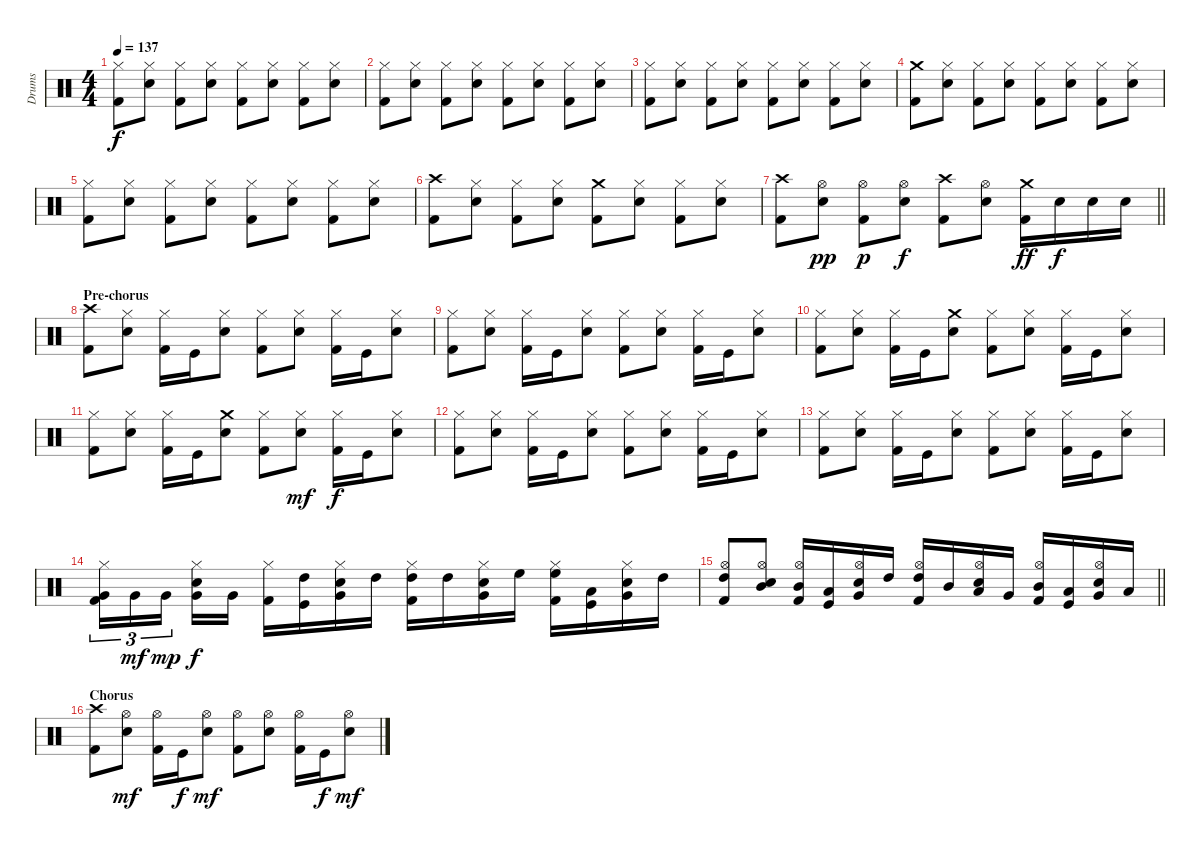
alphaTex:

\track ("Drums" "Drums") {instrument percussion}
\staff {score}
\articulation defaults
\ts (4 4)
\tempo 137
\clef neutral
\ks c
("Hi-Hat (closed)" "Kick (hit) 2").8{dy f} ("Hi-Hat (closed)" "Snare (hit) 2").8 ("Hi-Hat (closed)" "Kick (hit) 2").8 ("Hi-Hat (closed)" "Snare (hit) 2").8 ("Hi-Hat (closed)" "Kick (hit) 2").8 ("Hi-Hat (closed)" "Snare (hit) 2").8 ("Hi-Hat (closed)" "Kick (hit) 2").8 ("Hi-Hat (closed)" "Snare (hit) 2").8 |
("Hi-Hat (closed)" "Kick (hit) 2").8 ("Hi-Hat (closed)" "Snare (hit) 2").8 ("Hi-Hat (closed)" "Kick (hit) 2").8 ("Hi-Hat (closed)" "Snare (hit) 2").8 ("Hi-Hat (closed)" "Kick (hit) 2").8 ("Hi-Hat (closed)" "Snare (hit) 2").8 ("Hi-Hat (closed)" "Kick (hit) 2").8 ("Hi-Hat (closed)" "Snare (hit) 2").8 |
("Hi-Hat (closed)" "Kick (hit) 2").8 ("Hi-Hat (closed)" "Snare (hit) 2").8 ("Hi-Hat (closed)" "Kick (hit) 2").8 ("Hi-Hat (closed)" "Snare (hit) 2").8 ("Hi-Hat (closed)" "Kick (hit) 2").8 ("Hi-Hat (closed)" "Snare (hit) 2").8 ("Hi-Hat (closed)" "Kick (hit) 2").8 ("Hi-Hat (closed)" "Snare (hit) 2").8 |
("Crash medium (hit)" "Kick (hit) 2").8 ("Hi-Hat (closed)" "Snare (hit) 2").8 ("Hi-Hat (closed)" "Kick (hit) 2").8 ("Hi-Hat (closed)" "Snare (hit) 2").8 ("Hi-Hat (closed)" "Kick (hit) 2").8 ("Hi-Hat (closed)" "Snare (hit) 2").8 ("Hi-Hat (closed)" "Kick (hit) 2").8 ("Hi-Hat (closed)" "Snare (hit) 2").8 |
("Hi-Hat (closed)" "Kick (hit) 2").8 ("Hi-Hat (closed)" "Snare (hit) 2").8 ("Hi-Hat (closed)" "Kick (hit) 2").8 ("Hi-Hat (closed)" "Snare (hit) 2").8 ("Hi-Hat (closed)" "Kick (hit) 2").8 ("Hi-Hat (closed)" "Snare (hit) 2").8 ("Hi-Hat (closed)" "Kick (hit) 2").8 ("Hi-Hat (closed)" "Snare (hit) 2").8 |
("Crash high (hit)" "Kick (hit) 2").8 ("Hi-Hat (closed)" "Snare (hit) 2").8 ("Hi-Hat (closed)" "Kick (hit) 2").8 ("Hi-Hat (closed)" "Snare (hit) 2").8 ("Crash medium (hit)" "Kick (hit) 2").8 ("Hi-Hat (closed)" "Snare (hit) 2").8 ("Hi-Hat (closed)" "Kick (hit) 2").8 ("Hi-Hat (closed)" "Snare (hit) 2").8 |
\barLineRight lightlight
("Crash high (hit)" "Kick (hit) 2").8 ("Hi-Hat (open)" "Snare (hit) 2").8{dy pp} ("Hi-Hat (open)" "Kick (hit) 2").8{dy p} ("Hi-Hat (open)" "Snare (hit) 2").8{dy f} ("Crash high (hit)" "Kick (hit) 2").8 ("Hi-Hat (open)" "Snare (hit) 2").8 ("Crash medium (hit)" "Kick (hit) 2").16{dy ff} "Snare (hit) 2".16{dy f} "Snare (hit) 2".16 "Snare (hit) 2".16 |
\section ("" "Pre-chorus")
("Crash high (hit)" "Kick (hit) 2").8 ("Hi-Hat (closed)" "Snare (hit) 2").8 ("Hi-Hat (closed)" "Kick (hit) 2").16 "Kick (hit)".16 ("Hi-Hat (closed)" "Snare (hit) 2").8 ("Hi-Hat (closed)" "Kick (hit) 2").8 ("Hi-Hat (closed)" "Snare (hit) 2").8 ("Hi-Hat (closed)" "Kick (hit) 2").16 "Kick (hit)".16 ("Hi-Hat (closed)" "Snare (hit) 2").8 |
("Hi-Hat (closed)" "Kick (hit) 2").8 ("Hi-Hat (closed)" "Snare (hit) 2").8 ("Hi-Hat (closed)" "Kick (hit) 2").16 "Kick (hit)".16 ("Hi-Hat (closed)" "Snare (hit) 2").8 ("Hi-Hat (closed)" "Kick (hit) 2").8 ("Hi-Hat (closed)" "Snare (hit) 2").8 ("Hi-Hat (closed)" "Kick (hit) 2").16 "Kick (hit)".16 ("Hi-Hat (closed)" "Snare (hit) 2").8 |
("Hi-Hat (closed)" "Kick (hit) 2").8 ("Hi-Hat (closed)" "Snare (hit) 2").8 ("Hi-Hat (closed)" "Kick (hit) 2").16 "Kick (hit)".16 ("Crash medium (hit)" "Snare (hit) 2").8 ("Hi-Hat (closed)" "Kick (hit) 2").8 ("Hi-Hat (closed)" "Snare (hit) 2").8 ("Hi-Hat (closed)" "Kick (hit) 2").16 "Kick (hit)".16 ("Hi-Hat (closed)" "Snare (hit) 2").8 |
("Hi-Hat (closed)" "Kick (hit) 2").8 ("Hi-Hat (closed)" "Snare (hit) 2").8 ("Hi-Hat (closed)" "Kick (hit) 2").16 "Kick (hit)".16 ("Crash medium (hit)" "Snare (hit) 2").8 ("Hi-Hat (closed)" "Kick (hit) 2").8 ("Hi-Hat (closed)" "Snare (hit) 2").8{dy mf} ("Hi-Hat (closed)" "Kick (hit) 2").16{dy f} "Kick (hit)".16 ("Hi-Hat (closed)" "Snare (hit) 2").8 |
("Hi-Hat (closed)" "Kick (hit) 2").8 ("Hi-Hat (closed)" "Snare (hit) 2").8 ("Hi-Hat (closed)" "Kick (hit) 2").16 "Kick (hit)".16 ("Hi-Hat (closed)" "Snare (hit) 2").8 ("Hi-Hat (closed)" "Kick (hit) 2").8 ("Hi-Hat (closed)" "Snare (hit) 2").8 ("Hi-Hat (closed)" "Kick (hit) 2").16 "Kick (hit)".16 ("Hi-Hat (closed)" "Snare (hit) 2").8 |
("Hi-Hat (closed)" "Kick (hit) 2").8 ("Hi-Hat (closed)" "Snare (hit) 2").8 ("Hi-Hat (closed)" "Kick (hit) 2").16 "Kick (hit)".16 ("Hi-Hat (closed)" "Snare (hit) 2").8 ("Hi-Hat (closed)" "Kick (hit) 2").8 ("Hi-Hat (closed)" "Snare (hit) 2").8 ("Hi-Hat (closed)" "Kick (hit) 2").16 "Kick (hit)".16 ("Hi-Hat (closed)" "Snare (hit) 2").8 |
("Hi-Hat (closed)" "Very Low Tom (hit)" "Kick (hit) 2").16{tu (3 2)} "Very Low Tom (hit)".16{tu (3 2) dy mf} "Very Low Tom (hit)".16{tu (3 2) dy mp beam splitsecondary} ("Hi-Hat (closed)" "Very Low Tom (hit)" "Snare (hit) 2").16{dy f} "Very Low Tom (hit)".16 ("Hi-Hat (closed)" "Kick (hit) 2").16 ("High Tom (hit)" "Kick (hit)").16 ("Hi-Hat (closed)" "Very Low Tom (hit)" "Snare (hit) 2").16 "High Tom (hit)".16 ("Hi-Hat (closed)" "High Tom (hit)" "Kick (hit) 2").16 "High Tom (hit)".16 ("Hi-Hat (closed)" "Very Low Tom (hit)" "Snare (hit) 2").16 "High Floor Tom (hit)".16 ("Hi-Hat (closed)" "High Floor Tom (hit)" "Kick (hit) 2").16 ("Low Tom (hit)" "Kick (hit)").16 ("Hi-Hat (closed)" "Very Low Tom (hit)" "Snare (hit) 2").16 "High Tom (hit)".16 |
\barLineRight lightlight
("Hi-Hat (open)" "High Tom (hit)" "Kick (hit) 2").8 ("Hi-Hat (open)" "Mid Tom (hit)" "Snare (hit) 2").8 ("Hi-Hat (open)" "Mid Tom (hit)" "Kick (hit) 2").16 ("Low Tom (hit)" "Kick (hit)").16 ("Hi-Hat (open)" "Very Low Tom (hit)" "Snare (hit) 2").16 "High Tom (hit)".16 ("Hi-Hat (open)" "High Tom (hit)" "Kick (hit) 2").16 "Mid Tom (hit)".16 ("Hi-Hat (open)" "Low Tom (hit)" "Snare (hit) 2").16 "Very Low Tom (hit)".16 ("Hi-Hat (open)" "Mid Tom (hit)" "Kick (hit) 2").16 ("Low Tom (hit)" "Kick (hit)").16 ("Hi-Hat (open)" "Very Low Tom (hit)" "Snare (hit) 2").16 "Low Floor Tom (hit)".16 |
\section ("" "Chorus")
("Crash high (hit)" "Kick (hit) 2").8 ("Hi-Hat (open)" "Snare (hit) 2").8{dy mf} ("Hi-Hat (open)" "Kick (hit) 2").16 "Kick (hit)".16{dy f} ("Hi-Hat (open)" "Snare (hit) 2").8{dy mf} ("Hi-Hat (open)" "Kick (hit) 2").8 ("Hi-Hat (open)" "Snare (hit) 2").8 ("Hi-Hat (open)" "Kick (hit) 2").16 "Kick (hit)".16{dy f} ("Hi-Hat (open)" "Snare (hit) 2").8{dy mf}
